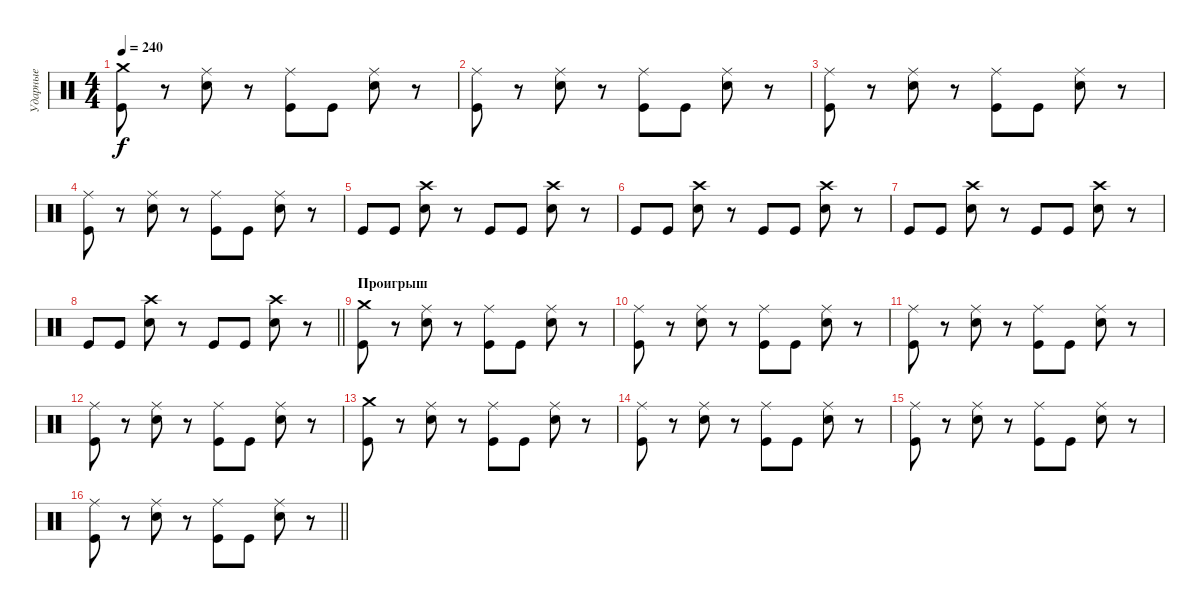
\track ("Ударные" "Ударные") {instrument percussion}
\staff {score}
\articulation defaults
\ts (4 4)
\section ("" " ")
\tempo 240
\clef neutral
\ks c
("Crash medium (hit)" "Kick (hit)").8{dy f} r.8 ("Ride (middle)" "Electric Snare (hit)").8 r.8 ("Ride (middle)" "Kick (hit)").8 "Kick (hit)".8 ("Ride (middle)" "Electric Snare (hit)").8 r.8 |
("Ride (middle)" "Kick (hit)").8 r.8 ("Ride (middle)" "Electric Snare (hit)").8 r.8 ("Ride (middle)" "Kick (hit)").8 "Kick (hit)".8 ("Ride (middle)" "Electric Snare (hit)").8 r.8 |
("Ride (middle)" "Kick (hit)").8 r.8 ("Ride (middle)" "Electric Snare (hit)").8 r.8 ("Ride (middle)" "Kick (hit)").8 "Kick (hit)".8 ("Ride (middle)" "Electric Snare (hit)").8 r.8 |
("Ride (middle)" "Kick (hit)").8 r.8 ("Ride (middle)" "Electric Snare (hit)").8 r.8 ("Ride (middle)" "Kick (hit)").8 "Kick (hit)".8 ("Ride (middle)" "Electric Snare (hit)").8 r.8 |
"Kick (hit)".8 "Kick (hit)".8 ("Crash high (hit)" "Electric Snare (hit)").8 r.8 "Kick (hit)".8 "Kick (hit)".8 ("Crash high (hit)" "Electric Snare (hit)").8 r.8 |
"Kick (hit)".8 "Kick (hit)".8 ("Crash high (hit)" "Electric Snare (hit)").8 r.8 "Kick (hit)".8 "Kick (hit)".8 ("Crash high (hit)" "Electric Snare (hit)").8 r.8 |
"Kick (hit)".8 "Kick (hit)".8 ("Crash high (hit)" "Electric Snare (hit)").8 r.8 "Kick (hit)".8 "Kick (hit)".8 ("Crash high (hit)" "Electric Snare (hit)").8 r.8 |
\barLineRight lightlight "Kick (hit)".8 "Kick (hit)".8
("Crash high (hit)" "Electric Snare (hit)").8 r.8 "Kick (hit)".8 "Kick (hit)".8 ("Crash high (hit)" "Electric Snare (hit)").8 r.8 |
\section ("" "Проигрыш")
("Crash medium (hit)" "Kick (hit)").8 r.8 ("Ride (middle)" "Electric Snare (hit)").8 r.8 ("Ride (middle)" "Kick (hit)").8 "Kick (hit)".8 ("Ride (middle)" "Electric Snare (hit)").8 r.8 |
("Ride (middle)" "Kick (hit)").8 r.8 ("Ride (middle)" "Electric Snare (hit)").8 r.8 ("Ride (middle)" "Kick (hit)").8 "Kick (hit)".8 ("Ride (middle)" "Electric Snare (hit)").8 r.8 |
("Ride (middle)" "Kick (hit)").8 r.8 ("Ride (middle)" "Electric Snare (hit)").8 r.8 ("Ride (middle)" "Kick (hit)").8 "Kick (hit)".8 ("Ride (middle)" "Electric Snare (hit)").8 r.8 |
("Ride (middle)" "Kick (hit)").8 r.8 ("Ride (middle)" "Electric Snare (hit)").8 r.8 ("Ride (middle)" "Kick (hit)").8 "Kick (hit)".8 ("Ride (middle)" "Electric Snare (hit)").8 r.8 |
("Crash medium (hit)" "Kick (hit)").8 r.8 ("Ride (middle)" "Electric Snare (hit)").8 r.8 ("Ride (middle)" "Kick (hit)").8 "Kick (hit)".8 ("Ride (middle)" "Electric Snare (hit)").8 r.8 |
("Ride (middle)" "Kick (hit)").8 r.8 ("Ride (middle)" "Electric Snare (hit)").8 r.8 ("Ride (middle)" "Kick (hit)").8 "Kick (hit)".8 ("Ride (middle)" "Electric Snare (hit)").8 r.8 |
("Ride (middle)" "Kick (hit)").8 r.8 ("Ride (middle)" "Electric Snare (hit)").8 r.8 ("Ride (middle)" "Kick (hit)").8 "Kick (hit)".8 ("Ride (middle)" "Electric Snare (hit)").8 r.8 |
\barLineRight lightlight
("Ride (middle)" "Kick (hit)").8 r.8 ("Ride (middle)" "Electric Snare (hit)").8 r.8 ("Ride (middle)" "Kick (hit)").8 "Kick (hit)".8 ("Ride (middle)" "Electric Snare (hit)").8 r.8
